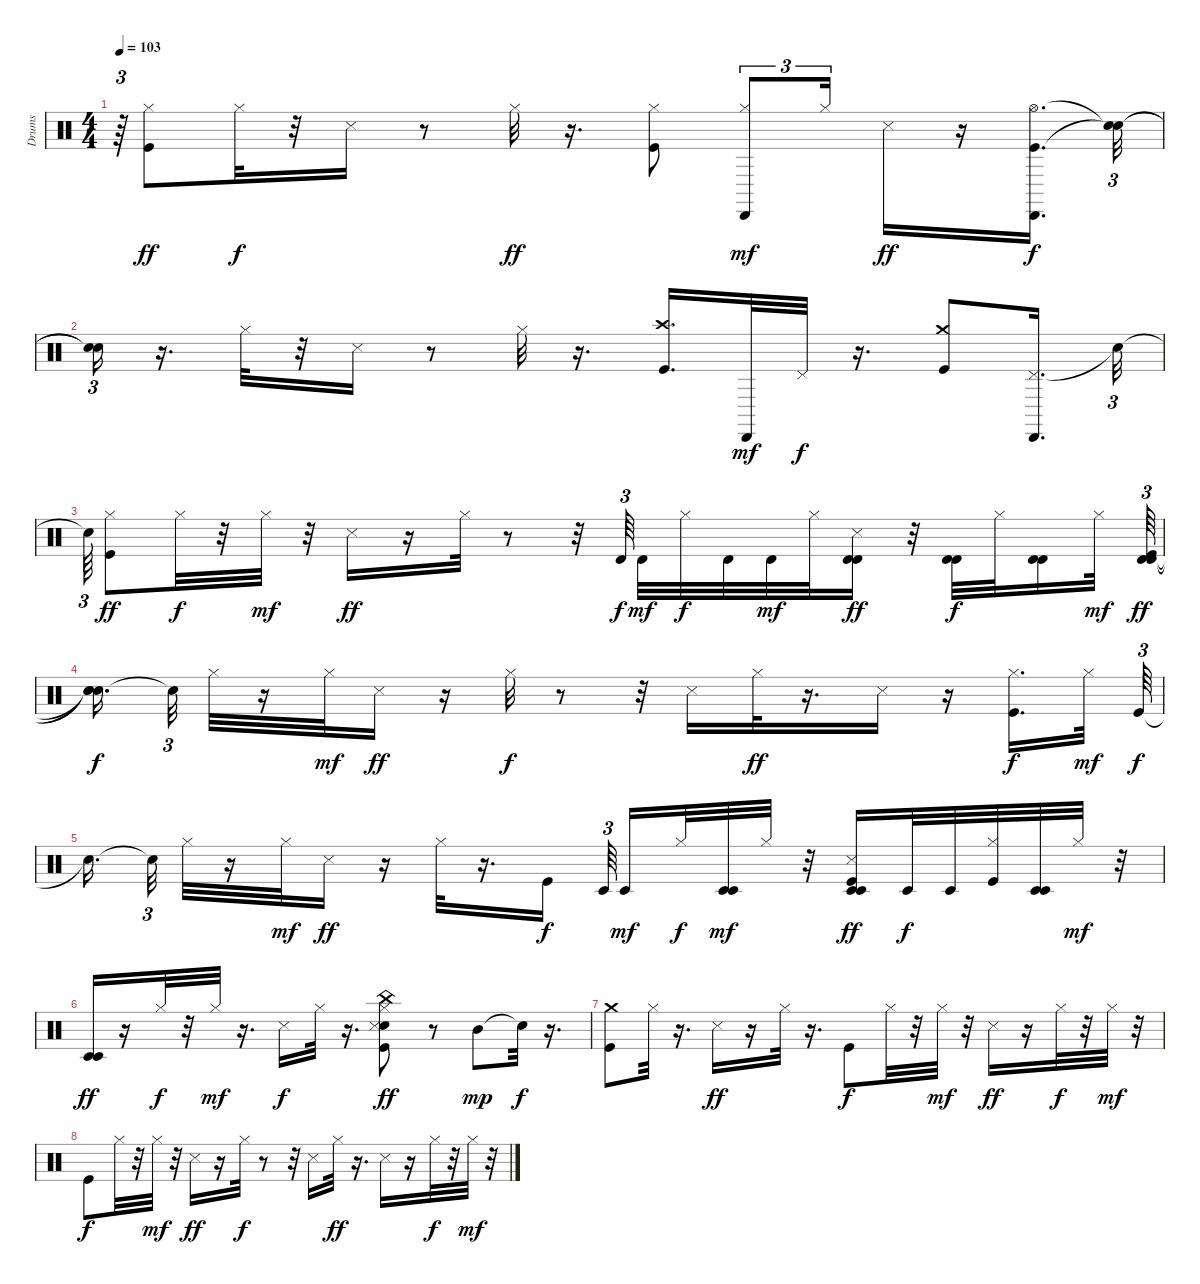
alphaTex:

\track ("Drums" "Drums") {instrument percussion}
\staff {score}
\articulation defaults
\ts (4 4)
\tempo 103
\clef neutral
\ks c
r.64{tu (3 2) dy mp} ("Kick (hit)" "Hi-Hat (closed)").8{dy ff} "Hi-Hat (closed)".32{dy f} r.32 "Snare (side stick) 3".16 r.8 "Hi-Hat (closed)".32{dy ff} r.16{d} ("Kick (hit)" "Hi-Hat (closed)").8 ("Cabasa (hit)" "Hi-Hat (closed)").8{tu (3 2) dy mf} "Hi-Hat (closed)".16{tu (3 2)} "Snare (side stick) 3".16{dy ff} r.16 ("Hi-Hat (open)" "Kick (hit)" "Cabasa (hit)").16{d dy f} ("Snare (hit)"{t} "Snare (hit)"{t}).32{tu (3 2)} |
("Snare (hit)"{t} "Snare (hit)"{t}).16{tu (3 2)} r.16{d} "Hi-Hat (closed)".32 r.32 "Snare (side stick) 3".16 r.8 "Hi-Hat (closed)".32 r.16{d} ("Crash high (hit)" "Kick (hit)").16{d} "Cabasa (hit)".32{dy mf} "Pedal Hi-Hat (hit)".32{dy f} r.16{d} ("Crash medium (hit)" "Kick (hit)").8 ("Pedal Hi-Hat (hit)" "Cabasa (hit)").16{d} "Snare (hit)"{t}.32{tu (3 2)} |
"Snare (hit)"{t}.64{tu (3 2)} ("Kick (hit)" "Hi-Hat (closed)").8{dy ff} "Hi-Hat (closed)".32{dy f} r.32 "Hi-Hat (closed)".32{dy mf} r.32 "Snare (side stick) 3".16{dy ff} r.16 "Hi-Hat (closed)".32 r.8 r.32 "Timbale high (hit)".64{tu (3 2) dy f beam splitsecondary} "Timbale high (hit)".32{dy mf} "Hi-Hat (closed)".32{dy f} "Timbale high (hit)".32 "Timbale high (hit)".32{dy mf} "Hi-Hat (closed)".32 ("Timbale high (hit)" "Timbale high (hit)" "Snare (side stick) 3").16{dy ff} r.32 ("Timbale high (hit)" "Timbale high (hit)").32{dy f} "Hi-Hat (closed)".32 ("Timbale high (hit)" "Timbale high (hit)").16 "Hi-Hat (closed)".32{dy mf} ("Timbale high (hit)" "Timbale high (hit)" "Kick (hit)").64{tu (3 2) dy ff} |
("Snare (hit)"{t} "Snare (hit)"{t} "Snare (hit)"{t}).16{d dy f beam splitsecondary} "Snare (hit)"{t}.32{tu (3 2)} "Hi-Hat (closed)".32 r.16 "Hi-Hat (closed)".32{dy mf} "Snare (side stick) 3".16{dy ff} r.16 "Hi-Hat (closed)".32{dy f} r.8 r.32 "Snare (side stick) 3".16 "Hi-Hat (closed)".32{dy ff} r.16{d} "Snare (side stick) 3".16 r.16 ("Kick (hit)" "Hi-Hat (closed)").16{d dy f} "Hi-Hat (closed)".32{dy mf} "Kick (hit)".64{tu (3 2) dy f} |
"Snare (hit)"{t}.16{d beam splitsecondary} "Snare (hit)"{t}.32{tu (3 2)} "Hi-Hat (closed)".32 r.16 "Hi-Hat (closed)".32{dy mf} "Snare (side stick) 3".16{dy ff} r.16 "Hi-Hat (closed)".32 r.16{d} "Kick (hit)".16{dy f} "Timbale low (hit)".64{tu (3 2) beam splitsecondary} "Timbale low (hit)".16{dy mf} "Hi-Hat (closed)".32{dy f} ("Timbale low (hit)" "Timbale low (hit)").32{dy mf} "Hi-Hat (closed)".32 r.32 ("Timbale low (hit)" "Timbale low (hit)" "Kick (hit)" "Snare (side stick) 3").16{dy ff} "Timbale low (hit)".32{dy f} "Timbale low (hit)".32 ("Kick (hit)" "Hi-Hat (closed)").32 ("Timbale low (hit)" "Timbale low (hit)").32 "Hi-Hat (closed)".32{dy mf} r.32 |
("Timbale low (hit)" "Timbale low (hit)").16{dy ff} r.16 "Hi-Hat (closed)".32{dy f} r.32 "Hi-Hat (closed)".32{dy mf} r.16{d} "Snare (side stick) 3".16{dy f} "Hi-Hat (closed)".32 r.16{d} ("Snare (hit) 2" "Kick (hit)" "China (hit)" "Snare (side stick) 3" "Hi-Hat (closed)").8{dy ff} r.8 "Mid Tom (hit)".8{dy mp} "Snare (hit)"{t}.32{dy f} r.16{d} |
("Kick (hit)" "Crash medium (hit)").8 "Hi-Hat (closed)".32 r.16{d} "Snare (side stick) 3".16{dy ff} r.16 "Hi-Hat (closed)".32 r.16{d} "Kick (hit)".8{dy f} "Hi-Hat (closed)".32 r.32 "Hi-Hat (closed)".32{dy mf} r.32 "Snare (side stick) 3".16{dy ff} r.16 "Hi-Hat (closed)".32{dy f} r.32 "Hi-Hat (closed)".32{dy mf} r.32 |
"Kick (hit)".8{dy f} "Hi-Hat (closed)".32 r.32 "Hi-Hat (closed)".32{dy mf} r.32 "Snare (side stick) 3".16{dy ff} r.16 "Hi-Hat (closed)".32{dy f} r.8 r.32 "Snare (side stick) 3".16 "Hi-Hat (closed)".32{dy ff} r.16{d} "Snare (side stick) 3".16 r.16 "Hi-Hat (closed)".32{dy f} r.32 "Hi-Hat (closed)".32{dy mf} r.32
